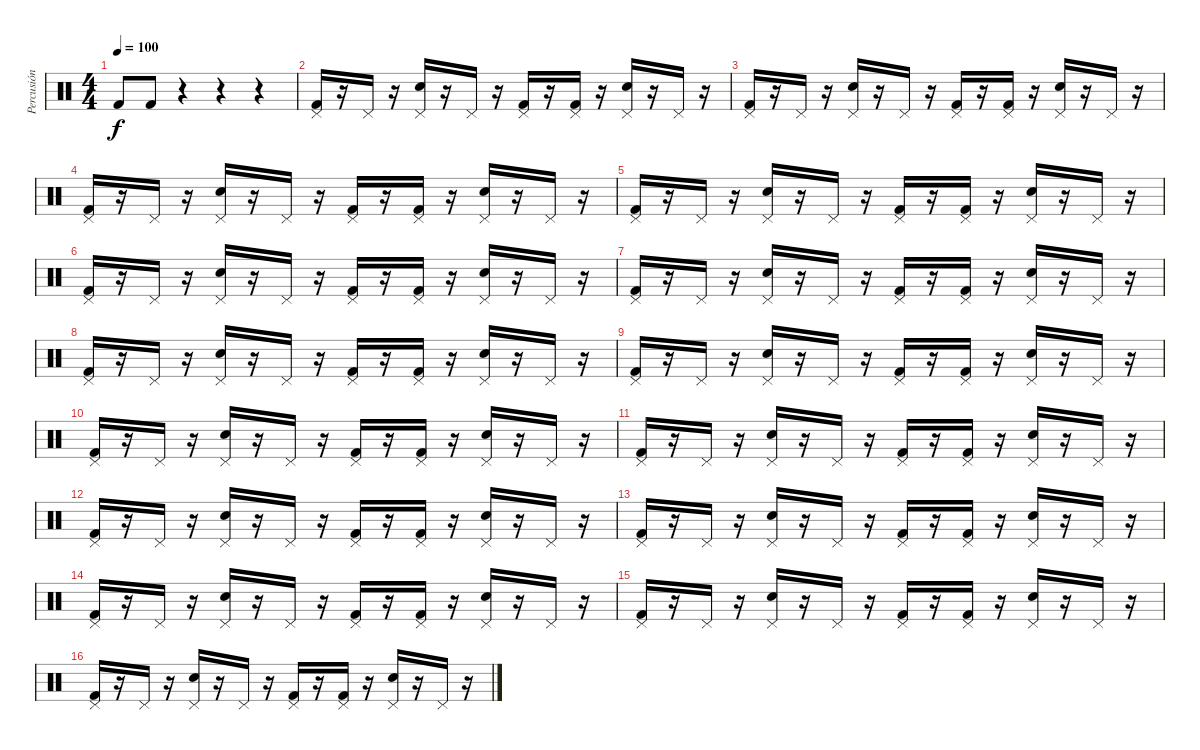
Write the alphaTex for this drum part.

\track ("Percusión" "Percusión") {instrument percussion}
\staff {score}
\articulation defaults
\ts (4 4)
\tempo 100
\clef neutral
\ks c "Kick (hit) 2".8{dy f} "Kick (hit) 2".8
r.4 r.4 r.4 |
("Pedal Hi-Hat (hit)" "Kick (hit) 2").16 r.16 "Pedal Hi-Hat (hit)".16 r.16 ("Pedal Hi-Hat (hit)" "Snare (hit) 2").16 r.16 "Pedal Hi-Hat (hit)".16 r.16 ("Pedal Hi-Hat (hit)" "Kick (hit) 2").16 r.16 ("Pedal Hi-Hat (hit)" "Kick (hit) 2").16 r.16 ("Pedal Hi-Hat (hit)" "Snare (hit) 2").16 r.16 "Pedal Hi-Hat (hit)".16 r.16 |
("Pedal Hi-Hat (hit)" "Kick (hit) 2").16 r.16 "Pedal Hi-Hat (hit)".16 r.16 ("Pedal Hi-Hat (hit)" "Snare (hit) 2").16 r.16 "Pedal Hi-Hat (hit)".16 r.16 ("Pedal Hi-Hat (hit)" "Kick (hit) 2").16 r.16 ("Pedal Hi-Hat (hit)" "Kick (hit) 2").16 r.16 ("Pedal Hi-Hat (hit)" "Snare (hit) 2").16 r.16 "Pedal Hi-Hat (hit)".16 r.16 |
("Pedal Hi-Hat (hit)" "Kick (hit) 2").16 r.16 "Pedal Hi-Hat (hit)".16 r.16 ("Pedal Hi-Hat (hit)" "Snare (hit) 2").16 r.16 "Pedal Hi-Hat (hit)".16 r.16 ("Pedal Hi-Hat (hit)" "Kick (hit) 2").16 r.16 ("Pedal Hi-Hat (hit)" "Kick (hit) 2").16 r.16 ("Pedal Hi-Hat (hit)" "Snare (hit) 2").16 r.16 "Pedal Hi-Hat (hit)".16 r.16 |
("Pedal Hi-Hat (hit)" "Kick (hit) 2").16 r.16 "Pedal Hi-Hat (hit)".16 r.16 ("Pedal Hi-Hat (hit)" "Snare (hit) 2").16 r.16 "Pedal Hi-Hat (hit)".16 r.16 ("Pedal Hi-Hat (hit)" "Kick (hit) 2").16 r.16 ("Pedal Hi-Hat (hit)" "Kick (hit) 2").16 r.16 ("Pedal Hi-Hat (hit)" "Snare (hit) 2").16 r.16 "Pedal Hi-Hat (hit)".16 r.16 |
("Pedal Hi-Hat (hit)" "Kick (hit) 2").16 r.16 "Pedal Hi-Hat (hit)".16 r.16 ("Pedal Hi-Hat (hit)" "Snare (hit) 2").16 r.16 "Pedal Hi-Hat (hit)".16 r.16 ("Pedal Hi-Hat (hit)" "Kick (hit) 2").16 r.16 ("Pedal Hi-Hat (hit)" "Kick (hit) 2").16 r.16 ("Pedal Hi-Hat (hit)" "Snare (hit) 2").16 r.16 "Pedal Hi-Hat (hit)".16 r.16 |
("Pedal Hi-Hat (hit)" "Kick (hit) 2").16 r.16 "Pedal Hi-Hat (hit)".16 r.16 ("Pedal Hi-Hat (hit)" "Snare (hit) 2").16 r.16 "Pedal Hi-Hat (hit)".16 r.16 ("Pedal Hi-Hat (hit)" "Kick (hit) 2").16 r.16 ("Pedal Hi-Hat (hit)" "Kick (hit) 2").16 r.16 ("Pedal Hi-Hat (hit)" "Snare (hit) 2").16 r.16 "Pedal Hi-Hat (hit)".16 r.16 |
("Pedal Hi-Hat (hit)" "Kick (hit) 2").16 r.16 "Pedal Hi-Hat (hit)".16 r.16 ("Pedal Hi-Hat (hit)" "Snare (hit) 2").16 r.16 "Pedal Hi-Hat (hit)".16 r.16 ("Pedal Hi-Hat (hit)" "Kick (hit) 2").16 r.16 ("Pedal Hi-Hat (hit)" "Kick (hit) 2").16 r.16 ("Pedal Hi-Hat (hit)" "Snare (hit) 2").16 r.16 "Pedal Hi-Hat (hit)".16 r.16 |
("Pedal Hi-Hat (hit)" "Kick (hit) 2").16 r.16 "Pedal Hi-Hat (hit)".16 r.16 ("Pedal Hi-Hat (hit)" "Snare (hit) 2").16 r.16 "Pedal Hi-Hat (hit)".16 r.16 ("Pedal Hi-Hat (hit)" "Kick (hit) 2").16 r.16 ("Pedal Hi-Hat (hit)" "Kick (hit) 2").16 r.16 ("Pedal Hi-Hat (hit)" "Snare (hit) 2").16 r.16 "Pedal Hi-Hat (hit)".16 r.16 |
("Pedal Hi-Hat (hit)" "Kick (hit) 2").16 r.16 "Pedal Hi-Hat (hit)".16 r.16 ("Pedal Hi-Hat (hit)" "Snare (hit) 2").16 r.16 "Pedal Hi-Hat (hit)".16 r.16 ("Pedal Hi-Hat (hit)" "Kick (hit) 2").16 r.16 ("Pedal Hi-Hat (hit)" "Kick (hit) 2").16 r.16 ("Pedal Hi-Hat (hit)" "Snare (hit) 2").16 r.16 "Pedal Hi-Hat (hit)".16 r.16 |
("Pedal Hi-Hat (hit)" "Kick (hit) 2").16 r.16 "Pedal Hi-Hat (hit)".16 r.16 ("Pedal Hi-Hat (hit)" "Snare (hit) 2").16 r.16 "Pedal Hi-Hat (hit)".16 r.16 ("Pedal Hi-Hat (hit)" "Kick (hit) 2").16 r.16 ("Pedal Hi-Hat (hit)" "Kick (hit) 2").16 r.16 ("Pedal Hi-Hat (hit)" "Snare (hit) 2").16 r.16 "Pedal Hi-Hat (hit)".16 r.16 |
("Pedal Hi-Hat (hit)" "Kick (hit) 2").16 r.16 "Pedal Hi-Hat (hit)".16 r.16 ("Pedal Hi-Hat (hit)" "Snare (hit) 2").16 r.16 "Pedal Hi-Hat (hit)".16 r.16 ("Pedal Hi-Hat (hit)" "Kick (hit) 2").16 r.16 ("Pedal Hi-Hat (hit)" "Kick (hit) 2").16 r.16 ("Pedal Hi-Hat (hit)" "Snare (hit) 2").16 r.16 "Pedal Hi-Hat (hit)".16 r.16 |
("Pedal Hi-Hat (hit)" "Kick (hit) 2").16 r.16 "Pedal Hi-Hat (hit)".16 r.16 ("Pedal Hi-Hat (hit)" "Snare (hit) 2").16 r.16 "Pedal Hi-Hat (hit)".16 r.16 ("Pedal Hi-Hat (hit)" "Kick (hit) 2").16 r.16 ("Pedal Hi-Hat (hit)" "Kick (hit) 2").16 r.16 ("Pedal Hi-Hat (hit)" "Snare (hit) 2").16 r.16 "Pedal Hi-Hat (hit)".16 r.16 |
("Pedal Hi-Hat (hit)" "Kick (hit) 2").16 r.16 "Pedal Hi-Hat (hit)".16 r.16 ("Pedal Hi-Hat (hit)" "Snare (hit) 2").16 r.16 "Pedal Hi-Hat (hit)".16 r.16 ("Pedal Hi-Hat (hit)" "Kick (hit) 2").16 r.16 ("Pedal Hi-Hat (hit)" "Kick (hit) 2").16 r.16 ("Pedal Hi-Hat (hit)" "Snare (hit) 2").16 r.16 "Pedal Hi-Hat (hit)".16 r.16 |
("Pedal Hi-Hat (hit)" "Kick (hit) 2").16 r.16 "Pedal Hi-Hat (hit)".16 r.16 ("Pedal Hi-Hat (hit)" "Snare (hit) 2").16 r.16 "Pedal Hi-Hat (hit)".16 r.16 ("Pedal Hi-Hat (hit)" "Kick (hit) 2").16 r.16 ("Pedal Hi-Hat (hit)" "Kick (hit) 2").16 r.16 ("Pedal Hi-Hat (hit)" "Snare (hit) 2").16 r.16 "Pedal Hi-Hat (hit)".16 r.16 |
("Pedal Hi-Hat (hit)" "Kick (hit) 2").16 r.16 "Pedal Hi-Hat (hit)".16 r.16 ("Pedal Hi-Hat (hit)" "Snare (hit) 2").16 r.16 "Pedal Hi-Hat (hit)".16 r.16 ("Pedal Hi-Hat (hit)" "Kick (hit) 2").16 r.16 ("Pedal Hi-Hat (hit)" "Kick (hit) 2").16 r.16 ("Pedal Hi-Hat (hit)" "Snare (hit) 2").16 r.16 "Pedal Hi-Hat (hit)".16 r.16
